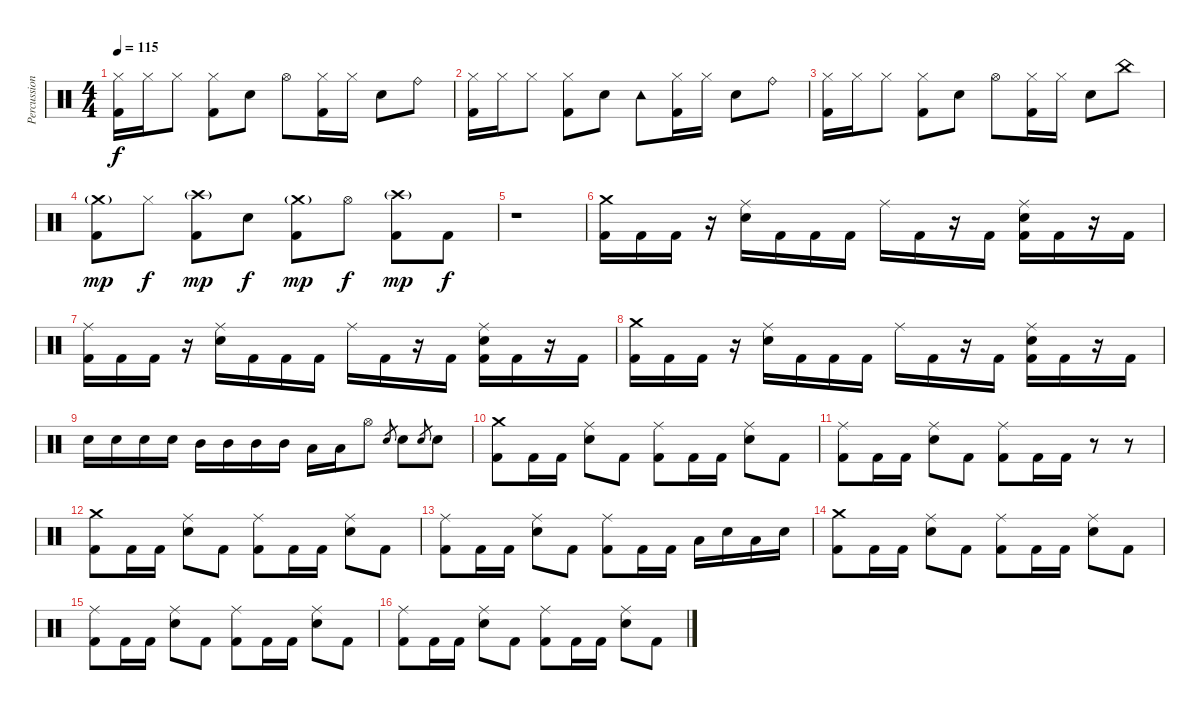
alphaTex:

\track ("Percussioni" "Percussion") {instrument percussion}
\staff {score}
\articulation defaults
\ts (4 4)
\tempo 115
\clef neutral
\ks c
("Hi-Hat (closed)" "Kick (hit) 2").16{dy f} "Hi-Hat (closed)".16 "Hi-Hat (closed)".8 ("Hi-Hat (closed)" "Kick (hit) 2").8 "Electric Snare (hit)".8 "Hi-Hat (open)".8 ("Hi-Hat (closed)" "Kick (hit) 2").16 "Hi-Hat (closed)".16 "Electric Snare (hit)".8 "Ride (bell)".8 |
("Hi-Hat (closed)" "Kick (hit) 2").16 "Hi-Hat (closed)".16 "Hi-Hat (closed)".8 ("Hi-Hat (closed)" "Kick (hit) 2").8 "Electric Snare (hit)".8 "Tambourine (hit)".8 ("Hi-Hat (closed)" "Kick (hit) 2").16 "Hi-Hat (closed)".16 "Electric Snare (hit)".8 "Ride (bell)".8 |
("Hi-Hat (closed)" "Kick (hit) 2").16 "Hi-Hat (closed)".16 "Hi-Hat (closed)".8 ("Hi-Hat (closed)" "Kick (hit) 2").8 "Electric Snare (hit)".8 "Hi-Hat (open)".8 ("Hi-Hat (closed)" "Kick (hit) 2").16 "Hi-Hat (closed)".16 "Electric Snare (hit)".8 "China (hit)".8 |
("Crash medium (hit)"{g} "Kick (hit) 2").8{dy mp} "Hi-Hat (closed)".8{dy f} ("Crash high (hit)"{g} "Kick (hit) 2").8{dy mp} "Electric Snare (hit)".8{dy f} ("Crash medium (hit)"{g} "Kick (hit) 2").8{dy mp} "Hi-Hat (open)".8{dy f} ("Crash high (hit)"{g} "Kick (hit) 2").8{dy mp} "Kick (hit) 2".8{dy f} |
r.1 |
("Crash medium (hit)" "Kick (hit) 2").16 "Kick (hit) 2".16 "Kick (hit) 2".16 r.16 ("Ride (middle)" "Electric Snare (hit)").16 "Kick (hit) 2".16 "Kick (hit) 2".16 "Kick (hit) 2".16 "Ride (middle)".16 "Kick (hit) 2".16 r.16 "Kick (hit) 2".16 ("Ride (middle)" "Electric Snare (hit)" "Kick (hit) 2").16 "Kick (hit) 2".16 r.16 "Kick (hit) 2".16 |
("Ride (middle)" "Kick (hit) 2").16 "Kick (hit) 2".16 "Kick (hit) 2".16 r.16 ("Ride (middle)" "Electric Snare (hit)").16 "Kick (hit) 2".16 "Kick (hit) 2".16 "Kick (hit) 2".16 "Ride (middle)".16 "Kick (hit) 2".16 r.16 "Kick (hit) 2".16 ("Ride (middle)" "Electric Snare (hit)" "Kick (hit) 2").16 "Kick (hit) 2".16 r.16 "Kick (hit) 2".16 |
("Crash medium (hit)" "Kick (hit) 2").16 "Kick (hit) 2".16 "Kick (hit) 2".16 r.16 ("Ride (middle)" "Electric Snare (hit)").16 "Kick (hit) 2".16 "Kick (hit) 2".16 "Kick (hit) 2".16 "Ride (middle)".16 "Kick (hit) 2".16 r.16 "Kick (hit) 2".16 ("Ride (middle)" "Electric Snare (hit)" "Kick (hit) 2").16 "Kick (hit) 2".16 r.16 "Kick (hit) 2".16 |
"Electric Snare (hit)".16 "Electric Snare (hit)".16 "Electric Snare (hit)".16 "Electric Snare (hit)".16 "Mid Tom (hit)".16 "Mid Tom (hit)".16 "Mid Tom (hit)".16 "Mid Tom (hit)".16 "Low Tom (hit)".16 "Low Tom (hit)".16 "Hi-Hat (open)".8 "Electric Snare (hit)".8{gr} "Electric Snare (hit)".8 "Electric Snare (hit)".8{gr} "Electric Snare (hit)".8 |
("Crash medium (hit)" "Kick (hit) 2").8 "Kick (hit) 2".16 "Kick (hit) 2".16 ("Ride (middle)" "Electric Snare (hit)").8 "Kick (hit) 2".8 ("Ride (middle)" "Kick (hit) 2").8 "Kick (hit) 2".16 "Kick (hit) 2".16 ("Ride (middle)" "Electric Snare (hit)").8 "Kick (hit) 2".8 |
("Ride (middle)" "Kick (hit) 2").8 "Kick (hit) 2".16 "Kick (hit) 2".16 ("Ride (middle)" "Electric Snare (hit)").8 "Kick (hit) 2".8 ("Ride (middle)" "Kick (hit) 2").8 "Kick (hit) 2".16 "Kick (hit) 2".16 r.8 r.8 |
("Crash medium (hit)" "Kick (hit) 2").8 "Kick (hit) 2".16 "Kick (hit) 2".16 ("Ride (middle)" "Electric Snare (hit)").8 "Kick (hit) 2".8 ("Ride (middle)" "Kick (hit) 2").8 "Kick (hit) 2".16 "Kick (hit) 2".16 ("Ride (middle)" "Electric Snare (hit)").8 "Kick (hit) 2".8 |
("Ride (middle)" "Kick (hit) 2").8 "Kick (hit) 2".16 "Kick (hit) 2".16 ("Ride (middle)" "Electric Snare (hit)").8 "Kick (hit) 2".8 ("Ride (middle)" "Kick (hit) 2").8 "Kick (hit) 2".16 "Kick (hit) 2".16 "Low Tom (hit)".16 "Electric Snare (hit)".16 "Low Tom (hit)".16 "Electric Snare (hit)".16 |
("Crash medium (hit)" "Kick (hit) 2").8 "Kick (hit) 2".16 "Kick (hit) 2".16 ("Ride (middle)" "Electric Snare (hit)").8 "Kick (hit) 2".8 ("Ride (middle)" "Kick (hit) 2").8 "Kick (hit) 2".16 "Kick (hit) 2".16 ("Ride (middle)" "Electric Snare (hit)").8 "Kick (hit) 2".8 |
("Ride (middle)" "Kick (hit) 2").8 "Kick (hit) 2".16 "Kick (hit) 2".16 ("Ride (middle)" "Electric Snare (hit)").8 "Kick (hit) 2".8 ("Ride (middle)" "Kick (hit) 2").8 "Kick (hit) 2".16 "Kick (hit) 2".16 ("Ride (middle)" "Electric Snare (hit)").8 "Kick (hit) 2".8 |
("Ride (middle)" "Kick (hit) 2").8 "Kick (hit) 2".16 "Kick (hit) 2".16 ("Ride (middle)" "Electric Snare (hit)").8 "Kick (hit) 2".8 ("Ride (middle)" "Kick (hit) 2").8 "Kick (hit) 2".16 "Kick (hit) 2".16 ("Ride (middle)" "Electric Snare (hit)").8 "Kick (hit) 2".8
